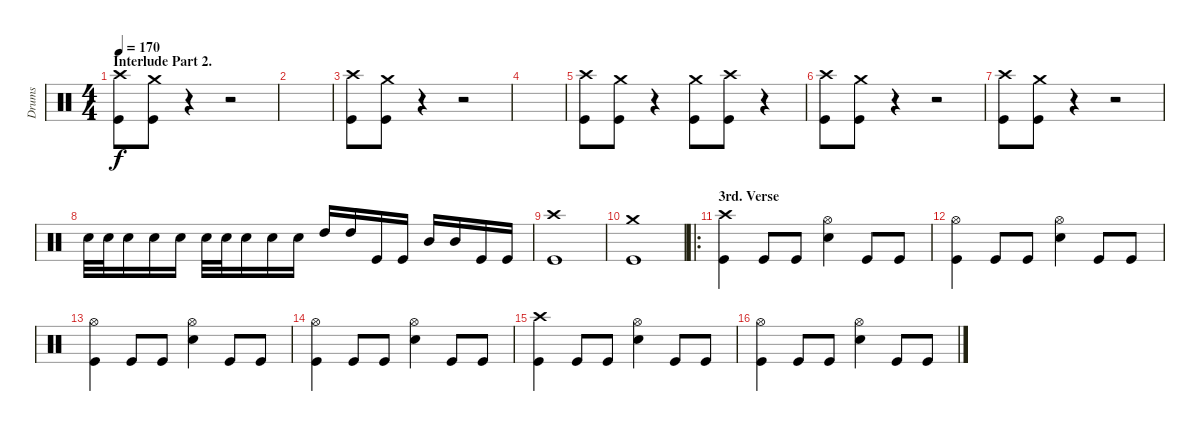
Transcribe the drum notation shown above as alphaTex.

\track ("Drums" "Drums") {instrument percussion}
\staff {score}
\articulation defaults
\ts (4 4)
\section ("" "Interlude Part 2.")
\tempo 170
\clef neutral
\ks c
("Crash high (hit)" "Kick (hit)").8{dy f} ("Crash medium (hit)" "Kick (hit)").8 r.4 r.2 |
|
("Crash high (hit)" "Kick (hit)").8 ("Crash medium (hit)" "Kick (hit)").8 r.4 r.2 |
|
("Crash high (hit)" "Kick (hit)").8 ("Crash medium (hit)" "Kick (hit)").8 r.4 ("Crash medium (hit)" "Kick (hit)").8 ("Crash high (hit)" "Kick (hit)").8 r.4 |
("Crash high (hit)" "Kick (hit)").8 ("Crash medium (hit)" "Kick (hit)").8 r.4 r.2 |
("Crash high (hit)" "Kick (hit)").8 ("Crash medium (hit)" "Kick (hit)").8 r.4 r.2 |
"Snare (hit) 2".32 "Snare (hit) 2".32 "Snare (hit) 2".16 "Snare (hit) 2".16 "Snare (hit) 2".16 "Snare (hit) 2".32 "Snare (hit) 2".32 "Snare (hit) 2".16 "Snare (hit) 2".16 "Snare (hit) 2".16 "High Tom (hit)".16 "High Tom (hit)".16 "Kick (hit)".16 "Kick (hit)".16 "Mid Tom (hit)".16 "Mid Tom (hit)".16 "Kick (hit)".16 "Kick (hit)".16 |
("Crash high (hit)" "Kick (hit)").1 |
("Crash medium (hit)" "Kick (hit)").1 |
\ro
\section ("" "3rd. Verse")
("Crash high (hit)" "Kick (hit)").4 "Kick (hit)".8 "Kick (hit)".8 ("Hi-Hat (open)" "Snare (hit) 2").4 "Kick (hit)".8 "Kick (hit)".8 |
("Hi-Hat (open)" "Kick (hit)").4 "Kick (hit)".8 "Kick (hit)".8 ("Hi-Hat (open)" "Snare (hit) 2").4 "Kick (hit)".8 "Kick (hit)".8 |
("Hi-Hat (open)" "Kick (hit)").4 "Kick (hit)".8 "Kick (hit)".8 ("Hi-Hat (open)" "Snare (hit) 2").4 "Kick (hit)".8 "Kick (hit)".8 |
("Hi-Hat (open)" "Kick (hit)").4 "Kick (hit)".8 "Kick (hit)".8 ("Hi-Hat (open)" "Snare (hit) 2").4 "Kick (hit)".8 "Kick (hit)".8 |
("Crash high (hit)" "Kick (hit)").4 "Kick (hit)".8 "Kick (hit)".8 ("Hi-Hat (open)" "Snare (hit) 2").4 "Kick (hit)".8 "Kick (hit)".8 |
("Hi-Hat (open)" "Kick (hit)").4 "Kick (hit)".8 "Kick (hit)".8 ("Hi-Hat (open)" "Snare (hit) 2").4 "Kick (hit)".8 "Kick (hit)".8
